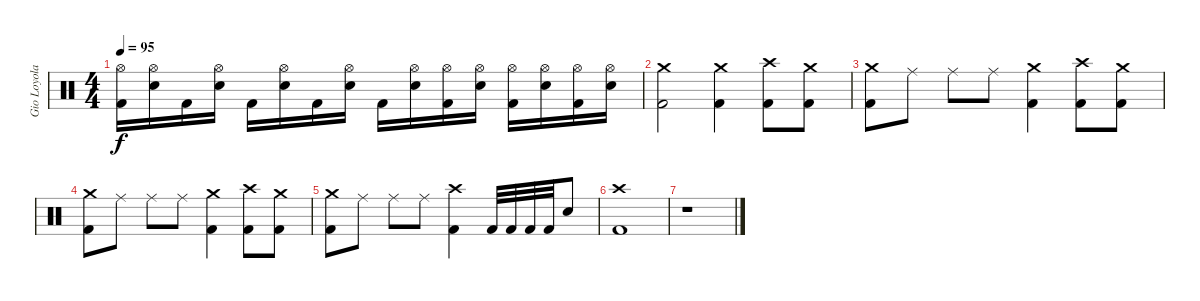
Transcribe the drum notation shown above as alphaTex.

\track ("Gio Loyola" "Gio Loyola") {instrument percussion}
\staff {score}
\articulation defaults
\ts (4 4)
\tempo 95
\clef neutral
\ks c
("Hi-Hat (open)" "Kick (hit) 2").16{dy f} ("Hi-Hat (open)" "Snare (hit) 2").16 "Kick (hit) 2".16 ("Hi-Hat (open)" "Snare (hit) 2").16 "Kick (hit) 2".16 ("Hi-Hat (open)" "Snare (hit) 2").16 "Kick (hit) 2".16 ("Hi-Hat (open)" "Snare (hit) 2").16 "Kick (hit) 2".16 ("Hi-Hat (open)" "Snare (hit) 2").16 ("Hi-Hat (open)" "Kick (hit) 2").16 ("Hi-Hat (open)" "Snare (hit) 2").16 ("Hi-Hat (open)" "Kick (hit) 2").16 ("Hi-Hat (open)" "Snare (hit) 2").16 ("Hi-Hat (open)" "Kick (hit) 2").16 ("Hi-Hat (open)" "Snare (hit) 2").16 |
("Crash medium (hit)" "Kick (hit) 2").2 ("Crash medium (hit)" "Kick (hit) 2").4 ("Crash high (hit)" "Kick (hit) 2").8 ("Crash medium (hit)" "Kick (hit) 2").8 |
("Crash medium (hit)" "Kick (hit) 2").8 "Ride (middle)".8 "Ride (middle)".8 "Ride (middle)".8 ("Crash medium (hit)" "Kick (hit) 2").4 ("Crash high (hit)" "Kick (hit) 2").8 ("Crash medium (hit)" "Kick (hit) 2").8 |
("Crash medium (hit)" "Kick (hit) 2").8 "Ride (middle)".8 "Ride (middle)".8 "Ride (middle)".8 ("Crash medium (hit)" "Kick (hit) 2").4 ("Crash high (hit)" "Kick (hit) 2").8 ("Crash medium (hit)" "Kick (hit) 2").8 |
("Crash medium (hit)" "Kick (hit) 2").8 "Ride (middle)".8 "Ride (middle)".8 "Ride (middle)".8 ("Crash high (hit)" "Kick (hit) 2").4 "Kick (hit) 2".32 "Kick (hit) 2".32 "Kick (hit) 2".32 "Kick (hit) 2".32 "Snare (hit) 2".8 |
("Crash high (hit)" "Kick (hit) 2").1 |
r.1
